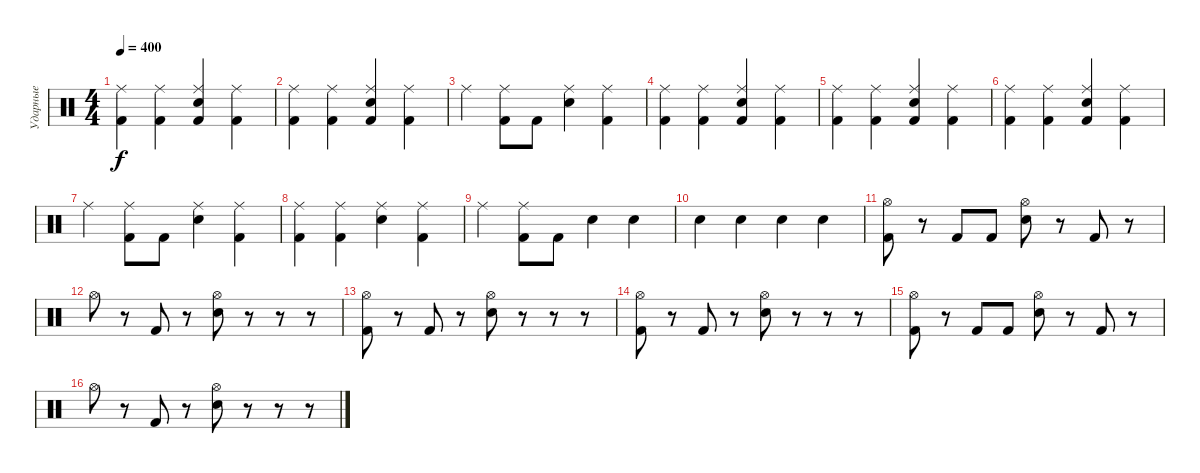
\track ("Ударные" "Ударные") {instrument percussion}
\staff {score}
\articulation defaults
\ts (4 4)
\tempo 400
\clef neutral
\ks c
("Kick (hit) 2" "Ride (middle)").4{dy f} ("Kick (hit) 2" "Ride (middle)").4 ("Kick (hit) 2" "Ride (middle)" "Electric Snare (hit)").4 ("Kick (hit) 2" "Ride (middle)").4 |
("Kick (hit) 2" "Ride (middle)").4 ("Kick (hit) 2" "Ride (middle)").4 ("Kick (hit) 2" "Ride (middle)" "Electric Snare (hit)").4 ("Kick (hit) 2" "Ride (middle)").4 |
"Ride (middle)".4 ("Kick (hit) 2" "Ride (middle)").8 "Kick (hit) 2".8 ("Electric Snare (hit)" "Ride (middle)").4 ("Kick (hit) 2" "Ride (middle)").4 |
("Kick (hit) 2" "Ride (middle)").4 ("Kick (hit) 2" "Ride (middle)").4 ("Kick (hit) 2" "Ride (middle)" "Electric Snare (hit)").4 ("Kick (hit) 2" "Ride (middle)").4 |
("Kick (hit) 2" "Ride (middle)").4 ("Kick (hit) 2" "Ride (middle)").4 ("Kick (hit) 2" "Ride (middle)" "Electric Snare (hit)").4 ("Kick (hit) 2" "Ride (middle)").4 |
("Kick (hit) 2" "Ride (middle)").4 ("Kick (hit) 2" "Ride (middle)").4 ("Kick (hit) 2" "Ride (middle)" "Electric Snare (hit)").4 ("Kick (hit) 2" "Ride (middle)").4 |
"Ride (middle)".4 ("Kick (hit) 2" "Ride (middle)").8 "Kick (hit) 2".8 ("Electric Snare (hit)" "Ride (middle)").4 ("Kick (hit) 2" "Ride (middle)").4 |
("Kick (hit) 2" "Ride (middle)").4 ("Kick (hit) 2" "Ride (middle)").4 ("Electric Snare (hit)" "Ride (middle)").4 ("Kick (hit) 2" "Ride (middle)").4 |
"Ride (middle)".4 ("Kick (hit) 2" "Ride (middle)").8 "Kick (hit) 2".8 "Electric Snare (hit)".4 "Snare (hit) 2".4 |
"Electric Snare (hit)".4 "Electric Snare (hit)".4 "Electric Snare (hit)".4 "Electric Snare (hit)".4 |
("Kick (hit) 2" "Hi-Hat (open)").8 r.8 "Kick (hit) 2".8 "Kick (hit) 2".8 ("Electric Snare (hit)" "Hi-Hat (open)").8 r.8 "Kick (hit) 2".8 r.8 |
"Hi-Hat (open)".8 r.8 "Kick (hit) 2".8 r.8 ("Electric Snare (hit)" "Hi-Hat (open)").8 r.8 r.8 r.8 |
("Kick (hit) 2" "Hi-Hat (open)").8 r.8 "Kick (hit) 2".8 r.8 ("Electric Snare (hit)" "Hi-Hat (open)").8 r.8 r.8 r.8 |
("Kick (hit) 2" "Hi-Hat (open)").8 r.8 "Kick (hit) 2".8 r.8 ("Electric Snare (hit)" "Hi-Hat (open)").8 r.8 r.8 r.8 |
("Kick (hit) 2" "Hi-Hat (open)").8 r.8 "Kick (hit) 2".8 "Kick (hit) 2".8 ("Electric Snare (hit)" "Hi-Hat (open)").8 r.8 "Kick (hit) 2".8 r.8 |
"Hi-Hat (open)".8 r.8 "Kick (hit) 2".8 r.8 ("Electric Snare (hit)" "Hi-Hat (open)").8 r.8 r.8 r.8
